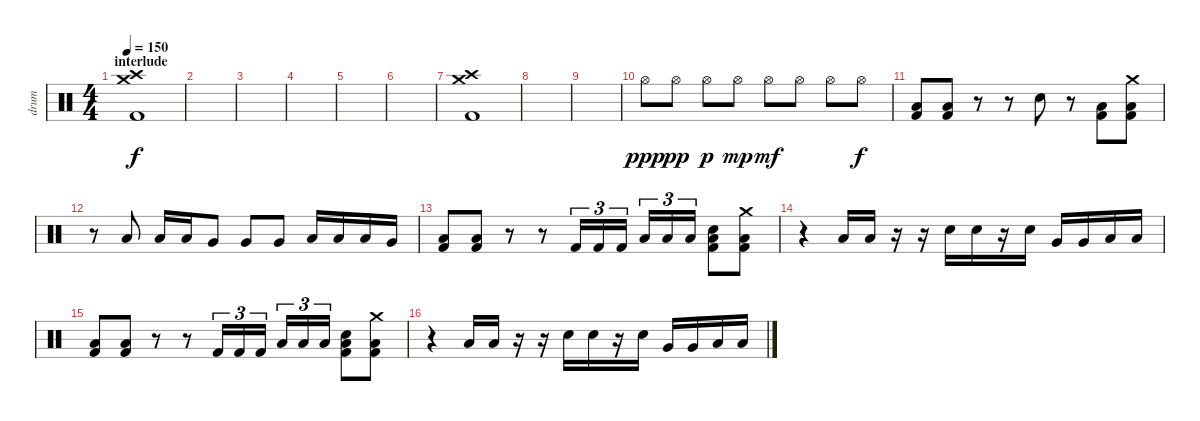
\track ("drum" "drum") {instrument percussion}
\staff {score}
\articulation defaults
\ts (4 4)
\section ("" "interlude")
\tempo 150
\clef neutral
\ks c
("Crash medium (hit)" "Crash high (hit)" "Kick (hit) 2").1{dy f} |
|
|
|
|
|
("Crash medium (hit)" "Crash high (hit)" "Kick (hit) 2").1 |
|
|
"Hi-Hat (open)".8{dy ppp} "Hi-Hat (open)".8{dy pp} "Hi-Hat (open)".8{dy p} "Hi-Hat (open)".8{dy mp} "Hi-Hat (open)".8{dy mf} "Hi-Hat (open)".8 "Hi-Hat (open)".8 "Hi-Hat (open)".8{dy f} |
("Low Floor Tom (hit)" "Kick (hit) 2").8 ("Low Floor Tom (hit)" "Kick (hit) 2").8 r.8 r.8 "Electric Snare (hit)".8 r.8 ("Kick (hit) 2" "Low Floor Tom (hit)").8 ("Crash medium (hit)" "Kick (hit) 2" "Low Floor Tom (hit)").8 |
r.8 "Low Tom (hit)".8 "Low Tom (hit)".16 "Low Tom (hit)".16 "Very Low Tom (hit)".8 "Very Low Tom (hit)".8 "Very Low Tom (hit)".8 "Low Floor Tom (hit)".16 "Low Floor Tom (hit)".16 "Low Floor Tom (hit)".16 "Very Low Tom (hit)".16 |
("Kick (hit) 2" "Low Floor Tom (hit)").8 ("Kick (hit) 2" "Low Floor Tom (hit)").8 r.8 r.8 "Kick (hit) 2".16{tu (3 2)} "Kick (hit) 2".16{tu (3 2)} "Kick (hit) 2".16{tu (3 2) beam splitsecondary} "Low Floor Tom (hit)".16{tu (3 2)} "Low Floor Tom (hit)".16{tu (3 2)} "Low Floor Tom (hit)".16{tu (3 2)} ("Electric Snare (hit)" "Low Floor Tom (hit)" "Kick (hit) 2").8 ("Crash medium (hit)" "Low Floor Tom (hit)" "Kick (hit) 2").8 |
r.4 "Low Tom (hit)".16 "Low Tom (hit)".16 r.16 r.16 "Electric Snare (hit)".16 "Electric Snare (hit)".16 r.16 "Electric Snare (hit)".16 "Very Low Tom (hit)".16 "Very Low Tom (hit)".16 "Low Floor Tom (hit)".16 "Low Floor Tom (hit)".16 |
("Kick (hit) 2" "Low Floor Tom (hit)").8 ("Kick (hit) 2" "Low Floor Tom (hit)").8 r.8 r.8 "Kick (hit) 2".16{tu (3 2)} "Kick (hit) 2".16{tu (3 2)} "Kick (hit) 2".16{tu (3 2) beam splitsecondary} "Low Floor Tom (hit)".16{tu (3 2)} "Low Floor Tom (hit)".16{tu (3 2)} "Low Floor Tom (hit)".16{tu (3 2)} ("Electric Snare (hit)" "Low Floor Tom (hit)" "Kick (hit) 2").8 ("Crash medium (hit)" "Low Floor Tom (hit)" "Kick (hit) 2").8 |
r.4 "Low Tom (hit)".16 "Low Tom (hit)".16 r.16 r.16 "Electric Snare (hit)".16 "Electric Snare (hit)".16 r.16 "Electric Snare (hit)".16 "Very Low Tom (hit)".16 "Very Low Tom (hit)".16 "Low Floor Tom (hit)".16 "Low Floor Tom (hit)".16
